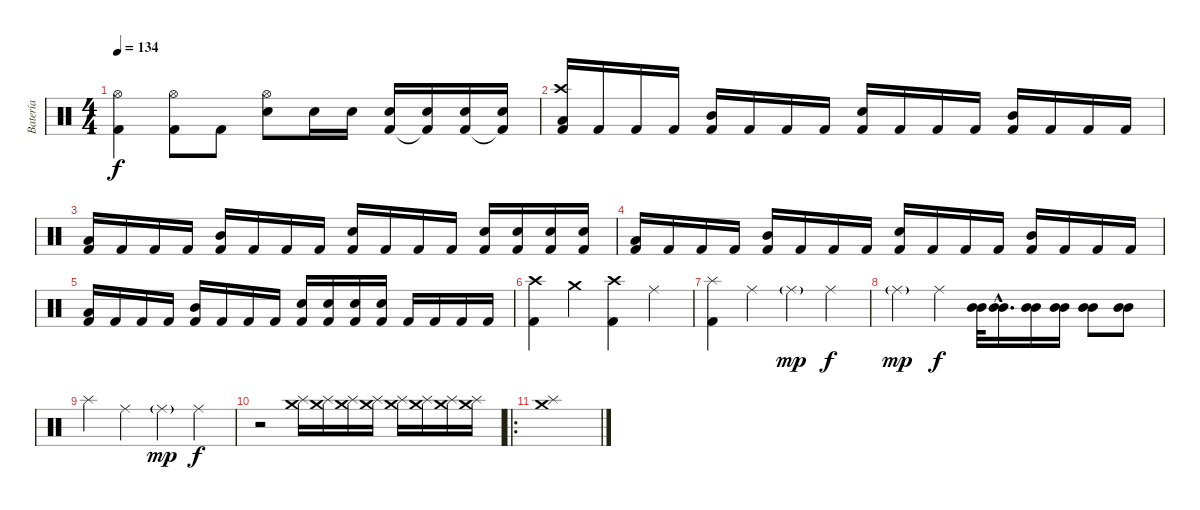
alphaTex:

\track ("Batería" "Batería") {instrument percussion}
\staff {score}
\articulation defaults
\ts (4 4)
\tempo 134
\clef neutral
\ks c
("Hi-Hat (open)" "Kick (hit) 2").4{dy f} ("Hi-Hat (open)" "Kick (hit) 2").8 "Kick (hit) 2".8 ("Electric Snare (hit)" "Hi-Hat (open)").8 "Electric Snare (hit)".16 "Electric Snare (hit)".16 ("Electric Snare (hit)" "Kick (hit) 2").16 ("Electric Snare (hit)" "Kick (hit) 2"{t}).16 ("Electric Snare (hit)" "Kick (hit) 2").16 ("Electric Snare (hit)" "Kick (hit) 2"{t}).16 |
("Crash high (hit)" "Low Tom (hit)" "Kick (hit) 2").16 "Kick (hit) 2".16 "Kick (hit) 2".16 "Kick (hit) 2".16 ("Mid Tom (hit)" "Kick (hit) 2").16 "Kick (hit) 2".16 "Kick (hit) 2".16 "Kick (hit) 2".16 ("Electric Snare (hit)" "Kick (hit) 2").16 "Kick (hit) 2".16 "Kick (hit) 2".16 "Kick (hit) 2".16 ("Mid Tom (hit)" "Kick (hit) 2").16 "Kick (hit) 2".16 "Kick (hit) 2".16 "Kick (hit) 2".16 |
("Low Tom (hit)" "Kick (hit) 2").16 "Kick (hit) 2".16 "Kick (hit) 2".16 "Kick (hit) 2".16 ("Mid Tom (hit)" "Kick (hit) 2").16 "Kick (hit) 2".16 "Kick (hit) 2".16 "Kick (hit) 2".16 ("Electric Snare (hit)" "Kick (hit) 2").16 "Kick (hit) 2".16 "Kick (hit) 2".16 "Kick (hit) 2".16 ("Electric Snare (hit)" "Kick (hit) 2").16 ("Electric Snare (hit)" "Kick (hit) 2").16 ("Electric Snare (hit)" "Kick (hit) 2").16 ("Electric Snare (hit)" "Kick (hit) 2").16 |
("Low Tom (hit)" "Kick (hit) 2").16 "Kick (hit) 2".16 "Kick (hit) 2".16 "Kick (hit) 2".16 ("Mid Tom (hit)" "Kick (hit) 2").16 "Kick (hit) 2".16 "Kick (hit) 2".16 "Kick (hit) 2".16 ("Electric Snare (hit)" "Kick (hit) 2").16 "Kick (hit) 2".16 "Kick (hit) 2".16 "Kick (hit) 2".16 ("Mid Tom (hit)" "Kick (hit) 2").16 "Kick (hit) 2".16 "Kick (hit) 2".16 "Kick (hit) 2".16 |
("Low Tom (hit)" "Kick (hit) 2").16 "Kick (hit) 2".16 "Kick (hit) 2".16 "Kick (hit) 2".16 ("Mid Tom (hit)" "Kick (hit) 2").16 "Kick (hit) 2".16 "Kick (hit) 2".16 "Kick (hit) 2".16 ("Electric Snare (hit)" "Kick (hit) 2").16 ("Electric Snare (hit)" "Kick (hit) 2").16 ("Electric Snare (hit)" "Kick (hit) 2").16 ("Electric Snare (hit)" "Kick (hit) 2").16 "Kick (hit) 2".16 "Kick (hit) 2".16 "Kick (hit) 2".16 "Kick (hit) 2".16 |
("Crash high (hit)" "Kick (hit) 2").4 "Crash medium (hit)".4 ("Crash high (hit)" "Kick (hit) 2").4 "Ride (middle)".4 |
("Splash (hit)" "Kick (hit) 2").4 "Ride (middle)".4 "Ride (middle)"{g}.4{dy mp} "Ride (middle)".4{dy f} |
"Ride (middle)"{g}.4{dy mp} "Ride (middle)".4{dy f} ("Mid Tom (hit)" "Mid Tom (hit)").32 ("Mid Tom (hit)"{hac} "Mid Tom (hit)"{hac}).16{d} ("Mid Tom (hit)" "Mid Tom (hit)").16 ("Mid Tom (hit)" "Mid Tom (hit)").16 ("Mid Tom (hit)" "Mid Tom (hit)").8 ("Mid Tom (hit)" "Mid Tom (hit)").8 |
"Splash (hit)".4 "Ride (middle)".4 "Ride (middle)"{g}.4{dy mp} "Ride (middle)".4{dy f} |
r.2 ("Crash medium (hit)" "Splash (hit)").16{volume 2} ("Crash medium (hit)" "Splash (hit)").16 ("Crash medium (hit)" "Splash (hit)").16{volume 6} ("Crash medium (hit)" "Splash (hit)").16 ("Crash medium (hit)" "Splash (hit)").16{volume 10} ("Crash medium (hit)" "Splash (hit)").16 ("Crash medium (hit)" "Splash (hit)").16{volume 12} ("Crash medium (hit)" "Splash (hit)").16 |
\ro
("Crash medium (hit)" "Splash (hit)").1
